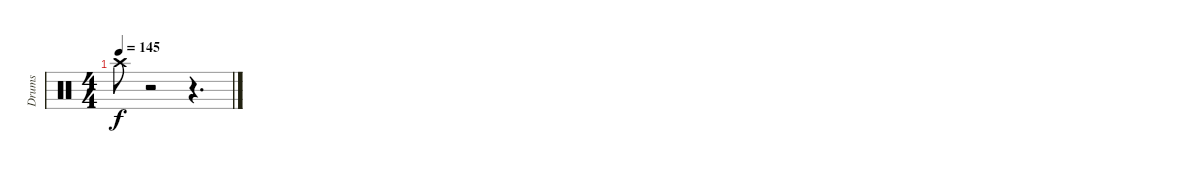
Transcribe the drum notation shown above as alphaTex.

\track ("Drums" "Drums") {instrument percussion}
\staff {score}
\articulation defaults
\ts (4 4)
\tempo 145
\clef neutral
\ks c "Crash high (hit)".8{dy f}
r.2 r.4{d}
